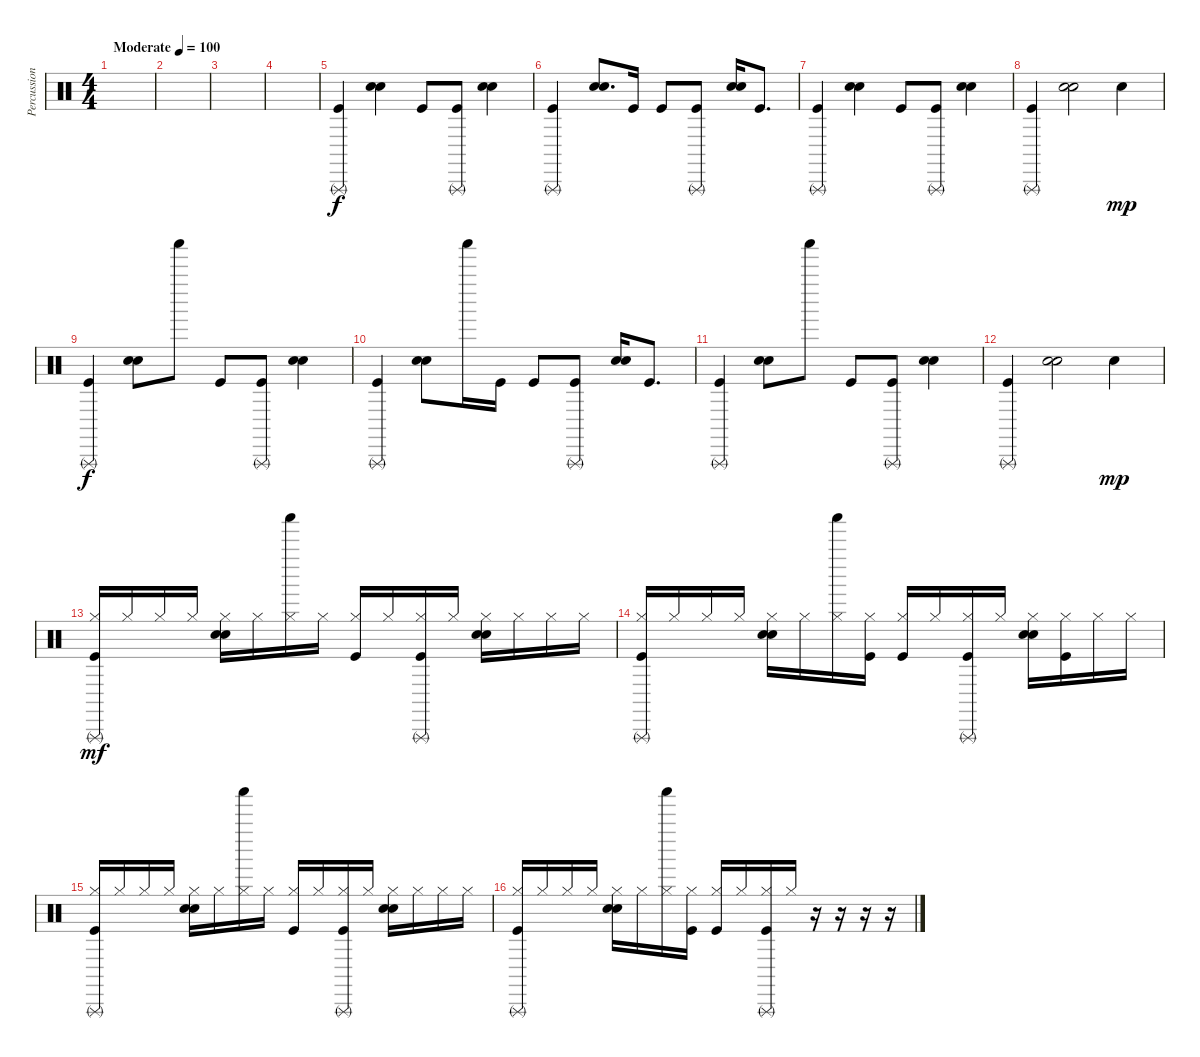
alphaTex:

\track ("Percussion" "Percussion") {instrument percussion}
\staff {score}
\articulation defaults
\ts (4 4)
\tempo (100 "Moderate")
\clef neutral
\ks c
|
|
|
|
("Triangle (rnute)" "Kick (hit)").4 ("Hand Clap (hit)" "Electric Snare (hit)").4 "Kick (hit)".8 ("Triangle (rnute)" "Kick (hit)").8 ("Hand Clap (hit)" "Electric Snare (hit)").4 |
("Triangle (rnute)" "Kick (hit)").4 ("Hand Clap (hit)" "Electric Snare (hit)").8{d} "Kick (hit)".16 "Kick (hit)".8 ("Triangle (rnute)" "Kick (hit)").8 ("Hand Clap (hit)" "Electric Snare (hit)").16 "Kick (hit)".8{d} |
("Triangle (rnute)" "Kick (hit)").4 ("Hand Clap (hit)" "Electric Snare (hit)").4 "Kick (hit)".8 ("Triangle (rnute)" "Kick (hit)").8 ("Hand Clap (hit)" "Electric Snare (hit)").4 |
("Triangle (rnute)" "Kick (hit)").4 ("Hand Clap (hit)" "Electric Snare (hit)").2 "Electric Snare (hit)".4{dy mp} |
("Triangle (rnute)" "Kick (hit)").4{dy f} ("Hand Clap (hit)" "Electric Snare (hit)").8 "Shaker (hit)".8 "Kick (hit)".8 ("Triangle (rnute)" "Kick (hit)").8 ("Hand Clap (hit)" "Electric Snare (hit)").4 |
("Triangle (rnute)" "Kick (hit)").4 ("Hand Clap (hit)" "Electric Snare (hit)").8 "Shaker (hit)".16 "Kick (hit)".16 "Kick (hit)".8 ("Triangle (rnute)" "Kick (hit)").8 ("Hand Clap (hit)" "Electric Snare (hit)").16 "Kick (hit)".8{d} |
("Triangle (rnute)" "Kick (hit)").4 ("Hand Clap (hit)" "Electric Snare (hit)").8 "Shaker (hit)".8 "Kick (hit)".8 ("Triangle (rnute)" "Kick (hit)").8 ("Hand Clap (hit)" "Electric Snare (hit)").4 |
("Triangle (rnute)" "Kick (hit)").4 ("Hand Clap (hit)" "Electric Snare (hit)").2 "Electric Snare (hit)".4{dy mp} |
("Triangle (rnute)" "Hi-Hat (closed)" "Kick (hit)").16{dy mf} "Hi-Hat (closed)".16 "Hi-Hat (closed)".16 "Hi-Hat (closed)".16 ("Hi-Hat (closed)" "Hand Clap (hit)" "Electric Snare (hit)").16 "Hi-Hat (closed)".16 ("Shaker (hit)" "Hi-Hat (closed)").16 "Hi-Hat (closed)".16 ("Hi-Hat (closed)" "Kick (hit)").16 "Hi-Hat (closed)".16 ("Triangle (rnute)" "Hi-Hat (closed)" "Kick (hit)").16 "Hi-Hat (closed)".16 ("Hi-Hat (closed)" "Hand Clap (hit)" "Electric Snare (hit)").16 "Hi-Hat (closed)".16 "Hi-Hat (closed)".16 "Hi-Hat (closed)".16 |
("Triangle (rnute)" "Hi-Hat (closed)" "Kick (hit)").16 "Hi-Hat (closed)".16 "Hi-Hat (closed)".16 "Hi-Hat (closed)".16 ("Hi-Hat (closed)" "Hand Clap (hit)" "Electric Snare (hit)").16 "Hi-Hat (closed)".16 ("Shaker (hit)" "Hi-Hat (closed)").16 ("Hi-Hat (closed)" "Kick (hit)").16 ("Hi-Hat (closed)" "Kick (hit)").16 "Hi-Hat (closed)".16 ("Triangle (rnute)" "Hi-Hat (closed)" "Kick (hit)").16 "Hi-Hat (closed)".16 ("Hi-Hat (closed)" "Hand Clap (hit)" "Electric Snare (hit)").16 ("Hi-Hat (closed)" "Kick (hit)").16 "Hi-Hat (closed)".16 "Hi-Hat (closed)".16 |
("Triangle (rnute)" "Hi-Hat (closed)" "Kick (hit)").16 "Hi-Hat (closed)".16 "Hi-Hat (closed)".16 "Hi-Hat (closed)".16 ("Hi-Hat (closed)" "Hand Clap (hit)" "Electric Snare (hit)").16 "Hi-Hat (closed)".16 ("Shaker (hit)" "Hi-Hat (closed)").16 "Hi-Hat (closed)".16 ("Hi-Hat (closed)" "Kick (hit)").16 "Hi-Hat (closed)".16 ("Triangle (rnute)" "Hi-Hat (closed)" "Kick (hit)").16 "Hi-Hat (closed)".16 ("Hi-Hat (closed)" "Hand Clap (hit)" "Electric Snare (hit)").16 "Hi-Hat (closed)".16 "Hi-Hat (closed)".16 "Hi-Hat (closed)".16 |
("Triangle (rnute)" "Hi-Hat (closed)" "Kick (hit)").16 "Hi-Hat (closed)".16 "Hi-Hat (closed)".16 "Hi-Hat (closed)".16 ("Hi-Hat (closed)" "Hand Clap (hit)" "Electric Snare (hit)").16 "Hi-Hat (closed)".16 ("Shaker (hit)" "Hi-Hat (closed)").16 ("Hi-Hat (closed)" "Kick (hit)").16 ("Hi-Hat (closed)" "Kick (hit)").16 "Hi-Hat (closed)".16 ("Triangle (rnute)" "Hi-Hat (closed)" "Kick (hit)").16 "Hi-Hat (closed)".16 r.16 r.16 r.16 r.16
